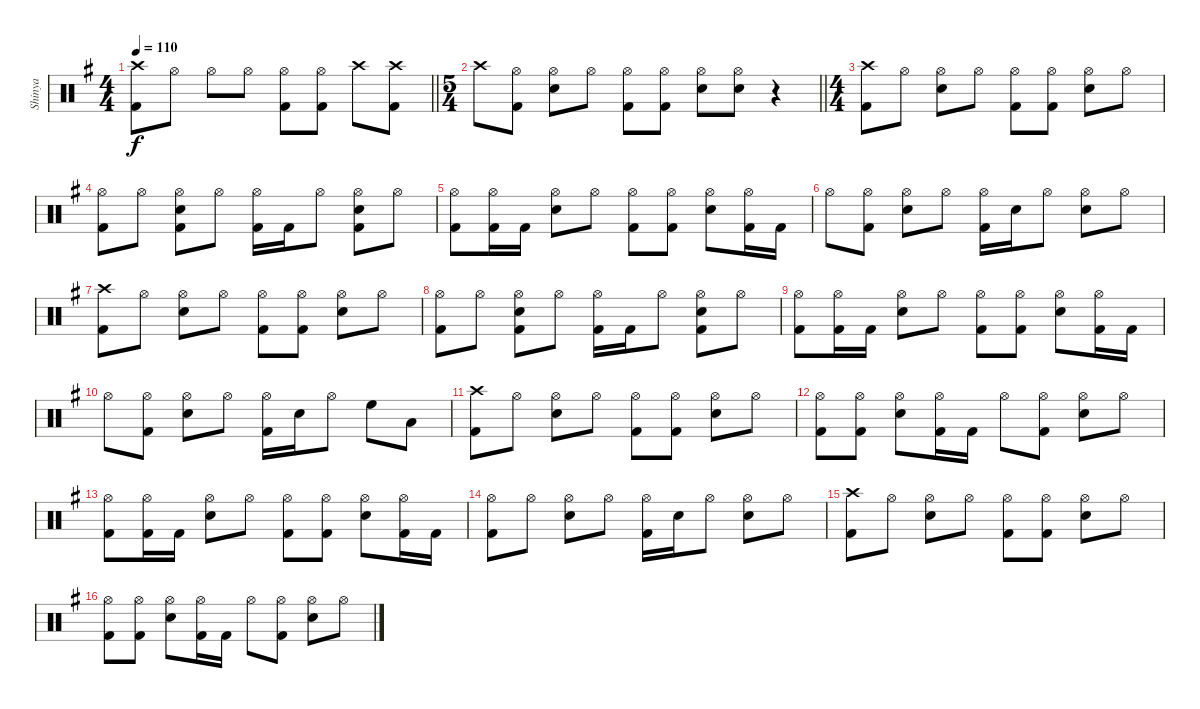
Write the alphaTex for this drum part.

\track ("Shinya" "Shinya") {instrument percussion}
\staff {score}
\articulation defaults
\ts (4 4)
\tempo 110
\clef neutral
\barLineRight lightlight
\ks g
("Crash high (hit)" "Kick (hit) 2").8{dy f} "Hi-Hat (open)".8 "Hi-Hat (open)".8 "Hi-Hat (open)".8 ("Hi-Hat (open)" "Kick (hit) 2").8 ("Hi-Hat (open)" "Kick (hit) 2").8 "Crash high (hit)".8 ("Crash high (hit)" "Kick (hit) 2").8 |
\ts (5 4)
\barLineRight lightlight "Crash high (hit)".8
("Hi-Hat (open)" "Kick (hit) 2").8 ("Hi-Hat (open)" "Electric Snare (hit)").8 "Hi-Hat (open)".8 ("Hi-Hat (open)" "Kick (hit) 2").8 ("Hi-Hat (open)" "Kick (hit) 2").8 ("Hi-Hat (open)" "Electric Snare (hit)").8 ("Hi-Hat (open)" "Electric Snare (hit)").8 r.4 |
\ts (4 4)
("Crash high (hit)" "Kick (hit) 2").8 "Hi-Hat (open)".8 ("Hi-Hat (open)" "Electric Snare (hit)").8 "Hi-Hat (open)".8 ("Hi-Hat (open)" "Kick (hit) 2").8 ("Hi-Hat (open)" "Kick (hit) 2").8 ("Hi-Hat (open)" "Electric Snare (hit)").8 "Hi-Hat (open)".8 |
("Hi-Hat (open)" "Kick (hit) 2").8 "Hi-Hat (open)".8 ("Hi-Hat (open)" "Electric Snare (hit)" "Kick (hit) 2").8 "Hi-Hat (open)".8 ("Hi-Hat (open)" "Kick (hit) 2").16 "Kick (hit) 2".16 "Hi-Hat (open)".8 ("Hi-Hat (open)" "Electric Snare (hit)" "Kick (hit) 2").8 "Hi-Hat (open)".8 |
("Hi-Hat (open)" "Kick (hit) 2").8 ("Hi-Hat (open)" "Kick (hit) 2").16 "Kick (hit) 2".16 ("Hi-Hat (open)" "Electric Snare (hit)").8 "Hi-Hat (open)".8 ("Hi-Hat (open)" "Kick (hit) 2").8 ("Hi-Hat (open)" "Kick (hit) 2").8 ("Hi-Hat (open)" "Electric Snare (hit)").8 ("Hi-Hat (open)" "Kick (hit) 2").16 "Kick (hit) 2".16 |
"Hi-Hat (open)".8 ("Hi-Hat (open)" "Kick (hit) 2").8 ("Hi-Hat (open)" "Electric Snare (hit)").8 "Hi-Hat (open)".8 ("Hi-Hat (open)" "Kick (hit) 2").16 "Electric Snare (hit)".16 "Hi-Hat (open)".8 ("Hi-Hat (open)" "Electric Snare (hit)").8 "Hi-Hat (open)".8 |
("Crash high (hit)" "Kick (hit) 2").8 "Hi-Hat (open)".8 ("Hi-Hat (open)" "Electric Snare (hit)").8 "Hi-Hat (open)".8 ("Hi-Hat (open)" "Kick (hit) 2").8 ("Hi-Hat (open)" "Kick (hit) 2").8 ("Hi-Hat (open)" "Electric Snare (hit)").8 "Hi-Hat (open)".8 |
("Hi-Hat (open)" "Kick (hit) 2").8 "Hi-Hat (open)".8 ("Hi-Hat (open)" "Electric Snare (hit)" "Kick (hit) 2").8 "Hi-Hat (open)".8 ("Hi-Hat (open)" "Kick (hit) 2").16 "Kick (hit) 2".16 "Hi-Hat (open)".8 ("Hi-Hat (open)" "Electric Snare (hit)" "Kick (hit) 2").8 "Hi-Hat (open)".8 |
("Hi-Hat (open)" "Kick (hit) 2").8 ("Hi-Hat (open)" "Kick (hit) 2").16 "Kick (hit) 2".16 ("Hi-Hat (open)" "Electric Snare (hit)").8 "Hi-Hat (open)".8 ("Hi-Hat (open)" "Kick (hit) 2").8 ("Hi-Hat (open)" "Kick (hit) 2").8 ("Hi-Hat (open)" "Electric Snare (hit)").8 ("Hi-Hat (open)" "Kick (hit) 2").16 "Kick (hit) 2".16 |
"Hi-Hat (open)".8 ("Hi-Hat (open)" "Kick (hit) 2").8 ("Hi-Hat (open)" "Electric Snare (hit)").8 "Hi-Hat (open)".8 ("Hi-Hat (open)" "Kick (hit) 2").16 "Electric Snare (hit)".16 "Hi-Hat (open)".8 "High Floor Tom (hit)".8 "Low Tom (hit)".8 |
("Crash high (hit)" "Kick (hit) 2").8 "Hi-Hat (open)".8 ("Hi-Hat (open)" "Electric Snare (hit)").8 "Hi-Hat (open)".8 ("Hi-Hat (open)" "Kick (hit) 2").8 ("Hi-Hat (open)" "Kick (hit) 2").8 ("Hi-Hat (open)" "Electric Snare (hit)").8 "Hi-Hat (open)".8 |
("Hi-Hat (open)" "Kick (hit) 2").8 ("Hi-Hat (open)" "Kick (hit) 2").8 ("Hi-Hat (open)" "Electric Snare (hit)").8 ("Hi-Hat (open)" "Kick (hit) 2").16 "Kick (hit) 2".16 "Hi-Hat (open)".8 ("Hi-Hat (open)" "Kick (hit) 2").8 ("Hi-Hat (open)" "Electric Snare (hit)").8 "Hi-Hat (open)".8 |
("Hi-Hat (open)" "Kick (hit) 2").8 ("Hi-Hat (open)" "Kick (hit) 2").16 "Kick (hit) 2".16 ("Hi-Hat (open)" "Electric Snare (hit)").8 "Hi-Hat (open)".8 ("Hi-Hat (open)" "Kick (hit) 2").8 ("Hi-Hat (open)" "Kick (hit) 2").8 ("Hi-Hat (open)" "Electric Snare (hit)").8 ("Hi-Hat (open)" "Kick (hit) 2").16 "Kick (hit) 2".16 |
("Hi-Hat (open)" "Kick (hit) 2").8 "Hi-Hat (open)".8 ("Hi-Hat (open)" "Electric Snare (hit)").8 "Hi-Hat (open)".8 ("Hi-Hat (open)" "Kick (hit) 2").16 "Electric Snare (hit)".16 "Hi-Hat (open)".8 ("Hi-Hat (open)" "Electric Snare (hit)").8 "Hi-Hat (open)".8 |
("Crash high (hit)" "Kick (hit) 2").8 "Hi-Hat (open)".8 ("Hi-Hat (open)" "Electric Snare (hit)").8 "Hi-Hat (open)".8 ("Hi-Hat (open)" "Kick (hit) 2").8 ("Hi-Hat (open)" "Kick (hit) 2").8 ("Hi-Hat (open)" "Electric Snare (hit)").8 "Hi-Hat (open)".8 |
("Hi-Hat (open)" "Kick (hit) 2").8 ("Hi-Hat (open)" "Kick (hit) 2").8 ("Hi-Hat (open)" "Electric Snare (hit)").8 ("Hi-Hat (open)" "Kick (hit) 2").16 "Kick (hit) 2".16 "Hi-Hat (open)".8 ("Hi-Hat (open)" "Kick (hit) 2").8 ("Hi-Hat (open)" "Electric Snare (hit)").8 "Hi-Hat (open)".8
